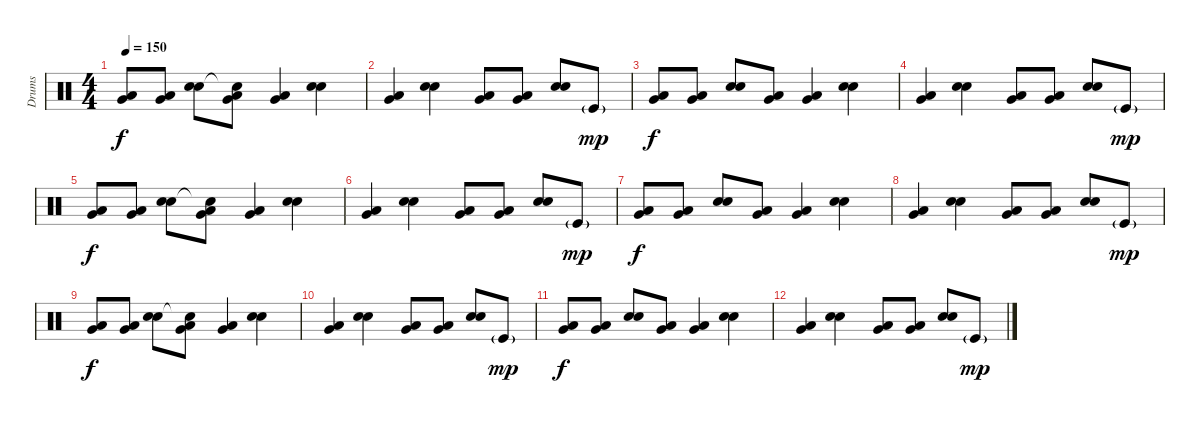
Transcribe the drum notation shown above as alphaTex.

\track ("Drums" "Drums") {instrument percussion}
\staff {score}
\articulation defaults
\ts (4 4)
\tempo 150
\clef neutral
\ks c
("Low Tom (hit)" "Very Low Tom (hit)").8{bd 480 dy f} ("Low Tom (hit)" "Very Low Tom (hit)").8{bd 480} ("Electric Snare (hit)" "Snare (hit) 2").8 ("Snare (hit)"{t} "Low Tom (hit)" "Very Low Tom (hit)").8{bd 480} ("Low Tom (hit)" "Very Low Tom (hit)").4{bd 240} ("Electric Snare (hit)" "Snare (hit) 2").4 |
("Low Tom (hit)" "Very Low Tom (hit)").4{bd 240} ("Electric Snare (hit)" "Snare (hit) 2").4 ("Low Tom (hit)" "Very Low Tom (hit)").8{bd 480} ("Low Tom (hit)" "Very Low Tom (hit)").8{bd 480} ("Electric Snare (hit)" "Snare (hit) 2").8 "Kick (hit)"{g}.8{dy mp} |
("Low Tom (hit)" "Very Low Tom (hit)").8{bd 480 dy f} ("Low Tom (hit)" "Very Low Tom (hit)").8{bd 480} ("Electric Snare (hit)" "Snare (hit) 2").8 ("Low Tom (hit)" "Very Low Tom (hit)").8{bd 480} ("Low Tom (hit)" "Very Low Tom (hit)").4{bd 240} ("Electric Snare (hit)" "Snare (hit) 2").4 |
("Low Tom (hit)" "Very Low Tom (hit)").4{bd 240} ("Electric Snare (hit)" "Snare (hit) 2").4 ("Low Tom (hit)" "Very Low Tom (hit)").8{bd 480} ("Low Tom (hit)" "Very Low Tom (hit)").8{bd 480} ("Electric Snare (hit)" "Snare (hit) 2").8 "Kick (hit)"{g}.8{dy mp} |
("Low Tom (hit)" "Very Low Tom (hit)").8{bd 480 dy f} ("Low Tom (hit)" "Very Low Tom (hit)").8{bd 480} ("Electric Snare (hit)" "Snare (hit) 2").8 ("Snare (hit)"{t} "Low Tom (hit)" "Very Low Tom (hit)").8{bd 480} ("Low Tom (hit)" "Very Low Tom (hit)").4{bd 240} ("Electric Snare (hit)" "Snare (hit) 2").4 |
("Low Tom (hit)" "Very Low Tom (hit)").4{bd 240} ("Electric Snare (hit)" "Snare (hit) 2").4 ("Low Tom (hit)" "Very Low Tom (hit)").8{bd 480} ("Low Tom (hit)" "Very Low Tom (hit)").8{bd 480} ("Electric Snare (hit)" "Snare (hit) 2").8 "Kick (hit)"{g}.8{dy mp} |
("Low Tom (hit)" "Very Low Tom (hit)").8{bd 480 dy f} ("Low Tom (hit)" "Very Low Tom (hit)").8{bd 480} ("Electric Snare (hit)" "Snare (hit) 2").8 ("Low Tom (hit)" "Very Low Tom (hit)").8{bd 480} ("Low Tom (hit)" "Very Low Tom (hit)").4{bd 240} ("Electric Snare (hit)" "Snare (hit) 2").4 |
("Low Tom (hit)" "Very Low Tom (hit)").4{bd 240} ("Electric Snare (hit)" "Snare (hit) 2").4 ("Low Tom (hit)" "Very Low Tom (hit)").8{bd 480} ("Low Tom (hit)" "Very Low Tom (hit)").8{bd 480} ("Electric Snare (hit)" "Snare (hit) 2").8 "Kick (hit)"{g}.8{dy mp} |
("Low Tom (hit)" "Very Low Tom (hit)").8{bd 480 dy f} ("Low Tom (hit)" "Very Low Tom (hit)").8{bd 480} ("Electric Snare (hit)" "Snare (hit) 2").8 ("Snare (hit)"{t} "Low Tom (hit)" "Very Low Tom (hit)").8{bd 480} ("Low Tom (hit)" "Very Low Tom (hit)").4{bd 240} ("Electric Snare (hit)" "Snare (hit) 2").4 |
("Low Tom (hit)" "Very Low Tom (hit)").4{bd 240} ("Electric Snare (hit)" "Snare (hit) 2").4 ("Low Tom (hit)" "Very Low Tom (hit)").8{bd 480} ("Low Tom (hit)" "Very Low Tom (hit)").8{bd 480} ("Electric Snare (hit)" "Snare (hit) 2").8 "Kick (hit)"{g}.8{dy mp} |
("Low Tom (hit)" "Very Low Tom (hit)").8{bd 480 dy f} ("Low Tom (hit)" "Very Low Tom (hit)").8{bd 480} ("Electric Snare (hit)" "Snare (hit) 2").8 ("Low Tom (hit)" "Very Low Tom (hit)").8{bd 480} ("Low Tom (hit)" "Very Low Tom (hit)").4{bd 240} ("Electric Snare (hit)" "Snare (hit) 2").4 |
("Low Tom (hit)" "Very Low Tom (hit)").4{bd 240} ("Electric Snare (hit)" "Snare (hit) 2").4 ("Low Tom (hit)" "Very Low Tom (hit)").8{bd 480} ("Low Tom (hit)" "Very Low Tom (hit)").8{bd 480} ("Electric Snare (hit)" "Snare (hit) 2").8 "Kick (hit)"{g}.8{dy mp}
